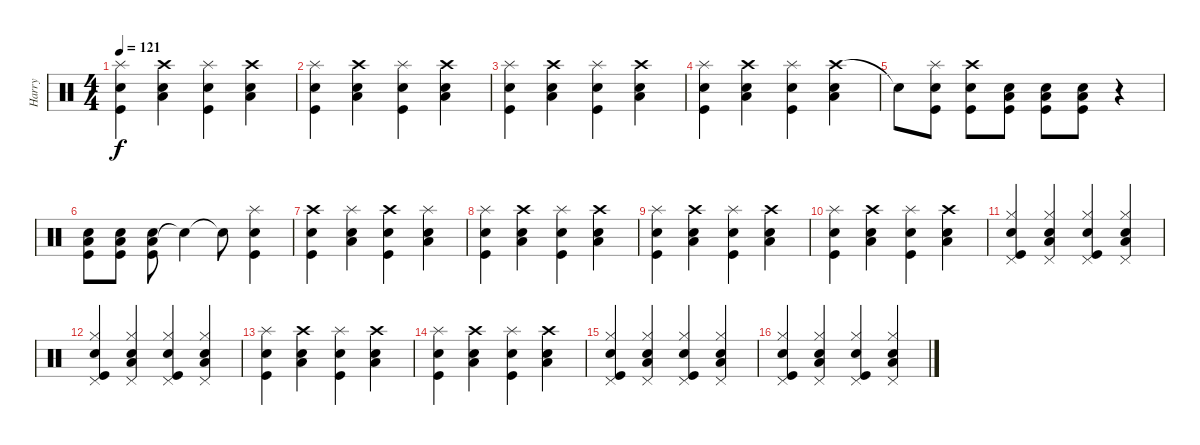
\track ("Harry" "Harry") {instrument percussion}
\staff {score}
\articulation defaults
\ts (4 4)
\tempo 121
\clef neutral
\ks c
("Splash (hit)" "Snare (hit) 2" "Kick (hit)").4{dy f} ("Crash high (hit)" "Snare (hit) 2" "Low Tom (hit)").4 ("Splash (hit)" "Snare (hit) 2" "Kick (hit)").4 ("Crash high (hit)" "Snare (hit) 2" "Low Tom (hit)").4 |
("Splash (hit)" "Snare (hit) 2" "Kick (hit)").4 ("Crash high (hit)" "Snare (hit) 2" "Low Tom (hit)").4 ("Splash (hit)" "Snare (hit) 2" "Kick (hit)").4 ("Crash high (hit)" "Snare (hit) 2" "Low Tom (hit)").4 |
("Splash (hit)" "Snare (hit) 2" "Kick (hit)").4 ("Crash high (hit)" "Snare (hit) 2" "Low Tom (hit)").4 ("Splash (hit)" "Snare (hit) 2" "Kick (hit)").4 ("Crash high (hit)" "Snare (hit) 2" "Low Tom (hit)").4 |
("Splash (hit)" "Snare (hit) 2" "Kick (hit)").4 ("Crash high (hit)" "Snare (hit) 2" "Low Tom (hit)").4 ("Splash (hit)" "Snare (hit) 2" "Kick (hit)").4 ("Crash high (hit)" "Snare (hit) 2" "Low Tom (hit)").4 |
"Snare (hit)"{t}.8 ("Splash (hit)" "Kick (hit)" "Snare (hit) 2").8 ("Crash high (hit)" "Kick (hit)" "Snare (hit) 2").8 ("Low Floor Tom (hit)" "Kick (hit)" "Snare (hit) 2").8 ("Low Floor Tom (hit)" "Kick (hit)" "Snare (hit) 2").8 ("Low Floor Tom (hit)" "Kick (hit)" "Snare (hit) 2").8 r.4 |
("Low Floor Tom (hit)" "Kick (hit)" "Snare (hit) 2").8 ("Low Floor Tom (hit)" "Kick (hit)" "Snare (hit) 2").8 ("Low Floor Tom (hit)" "Kick (hit)" "Snare (hit) 2").8 "Snare (hit)"{t}.4 "Snare (hit)"{t}.8 ("Splash (hit)" "Snare (hit) 2" "Kick (hit)").4 |
("Crash high (hit)" "Snare (hit) 2" "Kick (hit)").4 ("Splash (hit)" "Snare (hit) 2" "Low Tom (hit)").4 ("Crash high (hit)" "Snare (hit) 2" "Kick (hit)").4 ("Splash (hit)" "Snare (hit) 2" "Low Tom (hit)").4 |
("Splash (hit)" "Snare (hit) 2" "Kick (hit)").4 ("Crash high (hit)" "Snare (hit) 2" "Low Tom (hit)").4 ("Splash (hit)" "Snare (hit) 2" "Kick (hit)").4 ("Crash high (hit)" "Snare (hit) 2" "Low Tom (hit)").4 |
("Splash (hit)" "Snare (hit) 2" "Kick (hit)").4 ("Crash high (hit)" "Snare (hit) 2" "Low Tom (hit)").4 ("Splash (hit)" "Snare (hit) 2" "Kick (hit)").4 ("Crash high (hit)" "Snare (hit) 2" "Low Tom (hit)").4 |
("Splash (hit)" "Snare (hit) 2" "Kick (hit)").4 ("Crash high (hit)" "Snare (hit) 2" "Low Tom (hit)").4 ("Splash (hit)" "Snare (hit) 2" "Kick (hit)").4 ("Crash high (hit)" "Snare (hit) 2" "Low Tom (hit)").4 |
("Hi-Hat (closed)" "Pedal Hi-Hat (hit)" "Snare (hit) 2" "Kick (hit)").4 ("Hi-Hat (closed)" "Pedal Hi-Hat (hit)" "Snare (hit) 2" "Low Tom (hit)").4 ("Hi-Hat (closed)" "Pedal Hi-Hat (hit)" "Snare (hit) 2" "Kick (hit)").4 ("Hi-Hat (closed)" "Pedal Hi-Hat (hit)" "Snare (hit) 2" "Low Tom (hit)").4 |
("Hi-Hat (closed)" "Pedal Hi-Hat (hit)" "Snare (hit) 2" "Kick (hit)").4 ("Hi-Hat (closed)" "Pedal Hi-Hat (hit)" "Snare (hit) 2" "Low Tom (hit)").4 ("Hi-Hat (closed)" "Pedal Hi-Hat (hit)" "Snare (hit) 2" "Kick (hit)").4 ("Hi-Hat (closed)" "Pedal Hi-Hat (hit)" "Snare (hit) 2" "Low Tom (hit)").4 |
("Splash (hit)" "Snare (hit) 2" "Kick (hit)").4 ("Crash high (hit)" "Snare (hit) 2" "Low Tom (hit)").4 ("Splash (hit)" "Snare (hit) 2" "Kick (hit)").4 ("Crash high (hit)" "Snare (hit) 2" "Low Tom (hit)").4 |
("Splash (hit)" "Snare (hit) 2" "Kick (hit)").4 ("Crash high (hit)" "Snare (hit) 2" "Low Tom (hit)").4 ("Splash (hit)" "Snare (hit) 2" "Kick (hit)").4 ("Crash high (hit)" "Snare (hit) 2" "Low Tom (hit)").4 |
("Hi-Hat (closed)" "Pedal Hi-Hat (hit)" "Snare (hit) 2" "Kick (hit)").4 ("Hi-Hat (closed)" "Pedal Hi-Hat (hit)" "Snare (hit) 2" "Low Tom (hit)").4 ("Hi-Hat (closed)" "Pedal Hi-Hat (hit)" "Snare (hit) 2" "Kick (hit)").4 ("Hi-Hat (closed)" "Pedal Hi-Hat (hit)" "Snare (hit) 2" "Low Tom (hit)").4 |
("Hi-Hat (closed)" "Pedal Hi-Hat (hit)" "Snare (hit) 2" "Kick (hit)").4 ("Hi-Hat (closed)" "Pedal Hi-Hat (hit)" "Snare (hit) 2" "Low Tom (hit)").4 ("Hi-Hat (closed)" "Pedal Hi-Hat (hit)" "Snare (hit) 2" "Kick (hit)").4 ("Hi-Hat (closed)" "Pedal Hi-Hat (hit)" "Snare (hit) 2" "Low Tom (hit)").4
